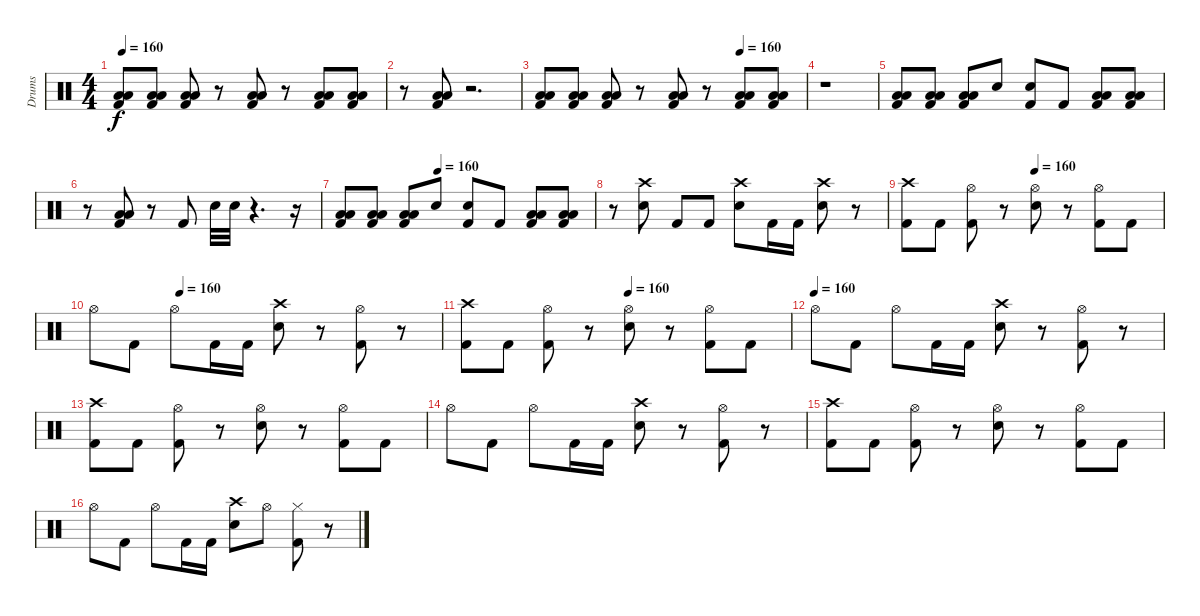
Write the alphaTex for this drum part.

\track ("Drums" "Drums") {instrument percussion}
\staff {score}
\articulation defaults
\ts (4 4)
\tempo 160
\clef neutral
\ks c
("Kick (hit) 2" "Low Tom (hit)" "Low Floor Tom (hit)").8{dy f} ("Kick (hit) 2" "Low Tom (hit)" "Low Floor Tom (hit)").8 ("Kick (hit) 2" "Low Tom (hit)" "Low Floor Tom (hit)").8 r.8 ("Kick (hit) 2" "Low Tom (hit)" "Low Floor Tom (hit)").8 r.8 ("Kick (hit) 2" "Low Tom (hit)" "Low Floor Tom (hit)").8 ("Kick (hit) 2" "Low Tom (hit)" "Low Floor Tom (hit)").8 |
r.8 ("Kick (hit) 2" "Low Tom (hit)" "Low Floor Tom (hit)").8 r.2{d} |
\tempo (160 0.75)
("Kick (hit) 2" "Low Tom (hit)" "Low Floor Tom (hit)").8 ("Kick (hit) 2" "Low Tom (hit)" "Low Floor Tom (hit)").8 ("Kick (hit) 2" "Low Tom (hit)" "Low Floor Tom (hit)").8 r.8 ("Kick (hit) 2" "Low Tom (hit)" "Low Floor Tom (hit)").8 r.8 ("Kick (hit) 2" "Low Tom (hit)" "Low Floor Tom (hit)").8 ("Kick (hit) 2" "Low Tom (hit)" "Low Floor Tom (hit)").8 |
r.1 |
("Kick (hit) 2" "Low Floor Tom (hit)" "Low Tom (hit)").8 ("Kick (hit) 2" "Low Tom (hit)" "Low Floor Tom (hit)").8 ("Kick (hit) 2" "Low Floor Tom (hit)" "Low Tom (hit)").8 "Electric Snare (hit)".8 ("Kick (hit) 2" "Electric Snare (hit)").8 "Kick (hit) 2".8 ("Kick (hit) 2" "Low Floor Tom (hit)" "Low Tom (hit)").8 ("Kick (hit) 2" "Low Tom (hit)" "Low Floor Tom (hit)").8 |
r.8 ("Kick (hit) 2" "Low Tom (hit)" "Low Floor Tom (hit)").8 r.8 "Kick (hit) 2".8 "Electric Snare (hit)".32 "Electric Snare (hit)".32 r.4{d} r.16 |
\tempo (160 0.375)
("Kick (hit) 2" "Low Floor Tom (hit)" "Low Tom (hit)").8 ("Kick (hit) 2" "Low Tom (hit)" "Low Floor Tom (hit)").8 ("Kick (hit) 2" "Low Floor Tom (hit)" "Low Tom (hit)").8 "Electric Snare (hit)".8 ("Kick (hit) 2" "Electric Snare (hit)").8 "Kick (hit) 2".8 ("Kick (hit) 2" "Low Floor Tom (hit)" "Low Tom (hit)").8 ("Kick (hit) 2" "Low Tom (hit)" "Low Floor Tom (hit)").8 |
r.8 ("Electric Snare (hit)" "Crash high (hit)").8 "Kick (hit) 2".8 "Kick (hit) 2".8 ("Electric Snare (hit)" "Crash high (hit)").8 "Kick (hit) 2".16 "Kick (hit) 2".16 ("Electric Snare (hit)" "Crash high (hit)").8 r.8 |
\tempo (160 0.5)
("Kick (hit) 2" "Crash high (hit)").8 "Kick (hit) 2".8 ("Kick (hit) 2" "Hi-Hat (open)").8 r.8 ("Electric Snare (hit)" "Hi-Hat (open)").8 r.8 ("Kick (hit) 2" "Hi-Hat (open)").8 "Kick (hit) 2".8 |
\tempo (160 0.25)
"Hi-Hat (open)".8 "Kick (hit) 2".8 "Hi-Hat (open)".8 "Kick (hit) 2".16 "Kick (hit) 2".16 ("Electric Snare (hit)" "Crash high (hit)").8 r.8 ("Kick (hit) 2" "Hi-Hat (open)").8 r.8 |
\tempo (160 0.5)
("Kick (hit) 2" "Crash high (hit)").8 "Kick (hit) 2".8 ("Kick (hit) 2" "Hi-Hat (open)").8 r.8 ("Electric Snare (hit)" "Hi-Hat (open)").8 r.8 ("Kick (hit) 2" "Hi-Hat (open)").8 "Kick (hit) 2".8 |
\tempo (160)
"Hi-Hat (open)".8 "Kick (hit) 2".8 "Hi-Hat (open)".8 "Kick (hit) 2".16 "Kick (hit) 2".16 ("Electric Snare (hit)" "Crash high (hit)").8 r.8 ("Kick (hit) 2" "Hi-Hat (open)").8 r.8 |
("Kick (hit) 2" "Crash high (hit)").8 "Kick (hit) 2".8 ("Kick (hit) 2" "Hi-Hat (open)").8 r.8 ("Electric Snare (hit)" "Hi-Hat (open)").8 r.8 ("Kick (hit) 2" "Hi-Hat (open)").8 "Kick (hit) 2".8 |
"Hi-Hat (open)".8 "Kick (hit) 2".8 "Hi-Hat (open)".8 "Kick (hit) 2".16 "Kick (hit) 2".16 ("Electric Snare (hit)" "Crash high (hit)").8 r.8 ("Kick (hit) 2" "Hi-Hat (open)").8 r.8 |
("Kick (hit) 2" "Crash high (hit)").8 "Kick (hit) 2".8 ("Kick (hit) 2" "Hi-Hat (open)").8 r.8 ("Electric Snare (hit)" "Hi-Hat (open)").8 r.8 ("Kick (hit) 2" "Hi-Hat (open)").8 "Kick (hit) 2".8 |
"Hi-Hat (open)".8 "Kick (hit) 2".8 "Hi-Hat (open)".8 "Kick (hit) 2".16 "Kick (hit) 2".16 ("Electric Snare (hit)" "Crash high (hit)").8 "Hi-Hat (open)".8 ("Kick (hit) 2" "Hi-Hat (closed)").8 r.8
